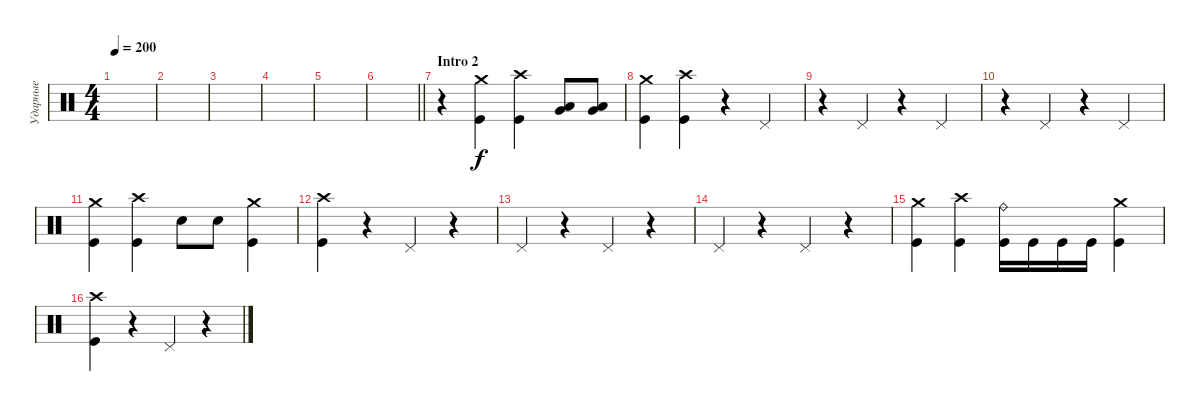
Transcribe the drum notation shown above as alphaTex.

\track ("Ударные" "Ударные") {instrument percussion}
\staff {score}
\articulation defaults
\ts (4 4)
\tempo 200
\clef neutral
\ks c
|
|
|
|
|
\barLineRight lightlight
|
\section ("" "Intro 2")
r.4 ("Crash medium (hit)" "Kick (hit)").4 ("Crash high (hit)" "Kick (hit)").4 ("Very Low Tom (hit)" "Low Tom (hit)").8 ("Low Tom (hit)" "Very Low Tom (hit)").8 |
("Crash medium (hit)" "Kick (hit)").4 ("Crash high (hit)" "Kick (hit)").4 r.4 "Pedal Hi-Hat (hit)".4 |
r.4 "Pedal Hi-Hat (hit)".4 r.4 "Pedal Hi-Hat (hit)".4 |
r.4 "Pedal Hi-Hat (hit)".4 r.4 "Pedal Hi-Hat (hit)".4 |
("Crash medium (hit)" "Kick (hit)").4 ("Crash high (hit)" "Kick (hit)").4 "Electric Snare (hit)".8 "Electric Snare (hit)".8 ("Crash medium (hit)" "Kick (hit)").4 |
("Crash high (hit)" "Kick (hit)").4 r.4 "Pedal Hi-Hat (hit)".4 r.4 |
"Pedal Hi-Hat (hit)".4 r.4 "Pedal Hi-Hat (hit)".4 r.4 |
"Pedal Hi-Hat (hit)".4 r.4 "Pedal Hi-Hat (hit)".4 r.4 |
("Crash medium (hit)" "Kick (hit)").4 ("Crash high (hit)" "Kick (hit)").4 ("Kick (hit)" "Ride (bell)").16 "Kick (hit)".16 "Kick (hit)".16 "Kick (hit)".16 ("Crash medium (hit)" "Kick (hit)").4 |
("Crash high (hit)" "Kick (hit)").4 r.4 "Pedal Hi-Hat (hit)".4 r.4
